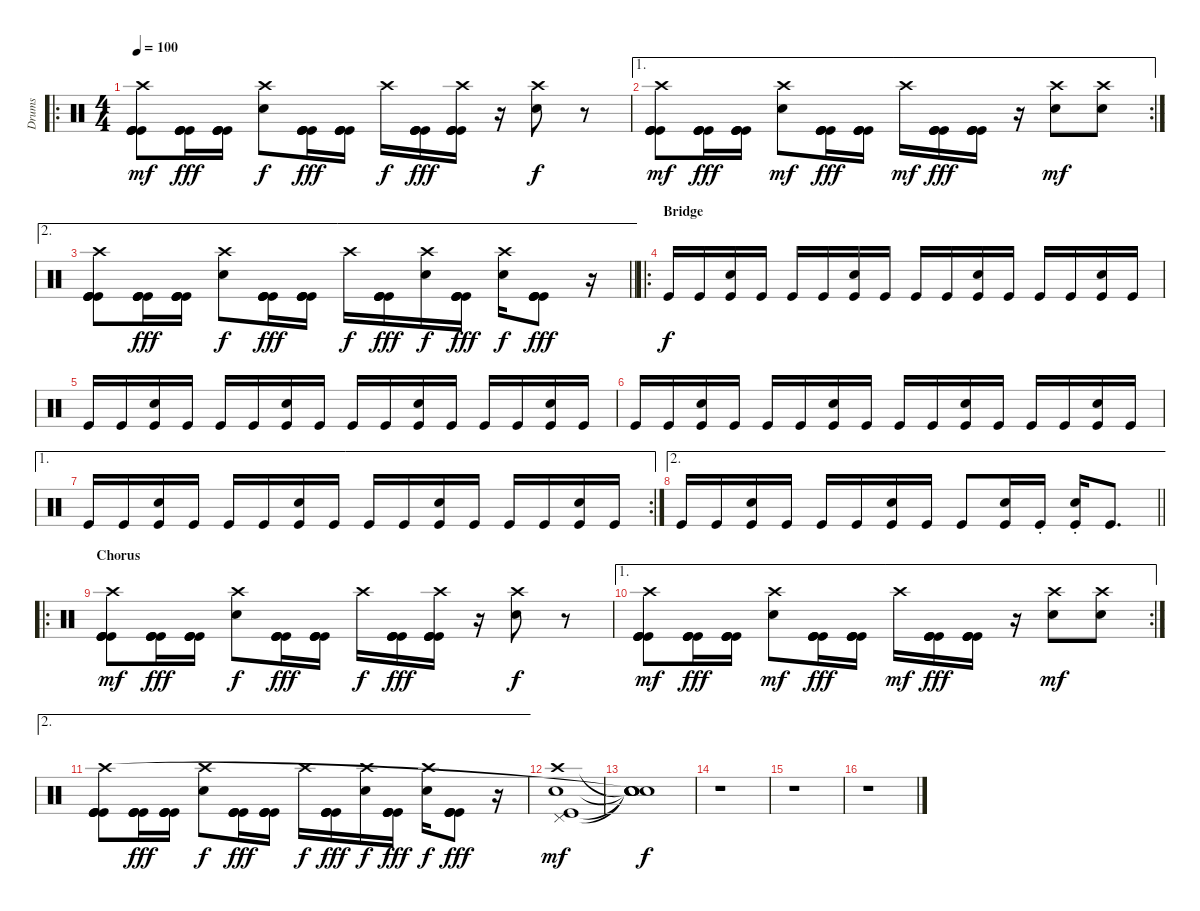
\track ("Drums" "Drums") {instrument percussion}
\staff {score}
\articulation defaults
\ro
\ts (4 4)
\tempo 100
\clef neutral
\ks c
("Kick (hit)" "Kick (hit)" "Kick (hit)" "Kick (hit)" "Crash high (hit)").8{dy mf} ("Kick (hit)" "Kick (hit)" "Kick (hit)" "Kick (hit)").16{dy fff} ("Kick (hit)" "Kick (hit)" "Kick (hit)" "Kick (hit)").16 ("Electric Snare (hit)" "Crash high (hit)").8{dy f} ("Kick (hit)" "Kick (hit)" "Kick (hit)" "Kick (hit)").16{dy fff} ("Kick (hit)" "Kick (hit)" "Kick (hit)" "Kick (hit)").16 "Crash high (hit)".16{dy f} ("Kick (hit)" "Kick (hit)" "Kick (hit)" "Kick (hit)").16{dy fff} ("Kick (hit)" "Kick (hit)" "Kick (hit)" "Kick (hit)" "Crash high (hit)").16 r.16 ("Electric Snare (hit)" "Crash high (hit)").8{dy f} r.8 |
\ae 1
\rc 2
("Kick (hit)" "Kick (hit)" "Kick (hit)" "Kick (hit)" "Crash high (hit)").8{dy mf} ("Kick (hit)" "Kick (hit)" "Kick (hit)" "Kick (hit)").16{dy fff} ("Kick (hit)" "Kick (hit)" "Kick (hit)" "Kick (hit)").16 ("Electric Snare (hit)" "Crash high (hit)").8{dy mf} ("Kick (hit)" "Kick (hit)" "Kick (hit)" "Kick (hit)").16{dy fff} ("Kick (hit)" "Kick (hit)" "Kick (hit)" "Kick (hit)").16 "Crash high (hit)".16{dy mf} ("Kick (hit)" "Kick (hit)" "Kick (hit)" "Kick (hit)").16{dy fff} ("Kick (hit)" "Kick (hit)" "Kick (hit)" "Kick (hit)").16 r.16 ("Electric Snare (hit)" "Crash high (hit)").8{dy mf} ("Electric Snare (hit)" "Crash high (hit)").8 |
\ae 2
\barLineRight lightlight
("Kick (hit)" "Kick (hit)" "Kick (hit)" "Kick (hit)" "Crash high (hit)").8 ("Kick (hit)" "Kick (hit)" "Kick (hit)" "Kick (hit)").16{dy fff} ("Kick (hit)" "Kick (hit)" "Kick (hit)" "Kick (hit)").16 ("Electric Snare (hit)" "Crash high (hit)").8{dy f} ("Kick (hit)" "Kick (hit)" "Kick (hit)" "Kick (hit)").16{dy fff} ("Kick (hit)" "Kick (hit)" "Kick (hit)" "Kick (hit)").16 "Crash high (hit)".16{dy f} ("Kick (hit)" "Kick (hit)" "Kick (hit)" "Kick (hit)").16{dy fff} ("Electric Snare (hit)" "Crash high (hit)").16{dy f} ("Kick (hit)" "Kick (hit)" "Kick (hit)" "Kick (hit)").16{dy fff} ("Electric Snare (hit)" "Crash high (hit)").16{dy f} ("Kick (hit)" "Kick (hit)" "Kick (hit)" "Kick (hit)").8{dy fff} r.16 |
\ro
\section ("" "Bridge")
"Kick (hit)".16{dy f} "Kick (hit)".16 ("Kick (hit)" "Electric Snare (hit)").16 "Kick (hit)".16 "Kick (hit)".16 "Kick (hit)".16 ("Kick (hit)" "Electric Snare (hit)").16 "Kick (hit)".16 "Kick (hit)".16 "Kick (hit)".16 ("Kick (hit)" "Electric Snare (hit)").16 "Kick (hit)".16 "Kick (hit)".16 "Kick (hit)".16 ("Kick (hit)" "Electric Snare (hit)").16 "Kick (hit)".16 |
"Kick (hit)".16 "Kick (hit)".16 ("Kick (hit)" "Electric Snare (hit)").16 "Kick (hit)".16 "Kick (hit)".16 "Kick (hit)".16 ("Kick (hit)" "Electric Snare (hit)").16 "Kick (hit)".16 "Kick (hit)".16 "Kick (hit)".16 ("Kick (hit)" "Electric Snare (hit)").16 "Kick (hit)".16 "Kick (hit)".16 "Kick (hit)".16 ("Kick (hit)" "Electric Snare (hit)").16 "Kick (hit)".16 |
"Kick (hit)".16 "Kick (hit)".16 ("Kick (hit)" "Electric Snare (hit)").16 "Kick (hit)".16 "Kick (hit)".16 "Kick (hit)".16 ("Kick (hit)" "Electric Snare (hit)").16 "Kick (hit)".16 "Kick (hit)".16 "Kick (hit)".16 ("Kick (hit)" "Electric Snare (hit)").16 "Kick (hit)".16 "Kick (hit)".16 "Kick (hit)".16 ("Kick (hit)" "Electric Snare (hit)").16 "Kick (hit)".16 |
\ae 1
\rc 2 "Kick (hit)".16 "Kick (hit)".16
("Kick (hit)" "Electric Snare (hit)").16 "Kick (hit)".16 "Kick (hit)".16 "Kick (hit)".16 ("Kick (hit)" "Electric Snare (hit)").16 "Kick (hit)".16 "Kick (hit)".16 "Kick (hit)".16 ("Kick (hit)" "Electric Snare (hit)").16 "Kick (hit)".16 "Kick (hit)".16 "Kick (hit)".16 ("Kick (hit)" "Electric Snare (hit)").16 "Kick (hit)".16 |
\ae 2
\barLineRight lightlight "Kick (hit)".16 "Kick (hit)".16
("Kick (hit)" "Electric Snare (hit)").16 "Kick (hit)".16 "Kick (hit)".16 "Kick (hit)".16 ("Kick (hit)" "Electric Snare (hit)").16 "Kick (hit)".16 "Kick (hit)".8 ("Kick (hit)" "Electric Snare (hit)").16 "Kick (hit)"{st}.16 ("Kick (hit)"{st} "Electric Snare (hit)").16 "Kick (hit)".8{d} |
\ro
\section ("" "Chorus")
("Kick (hit)" "Kick (hit)" "Kick (hit)" "Kick (hit)" "Crash high (hit)").8{dy mf} ("Kick (hit)" "Kick (hit)" "Kick (hit)" "Kick (hit)").16{dy fff} ("Kick (hit)" "Kick (hit)" "Kick (hit)" "Kick (hit)").16 ("Electric Snare (hit)" "Crash high (hit)").8{dy f} ("Kick (hit)" "Kick (hit)" "Kick (hit)" "Kick (hit)").16{dy fff} ("Kick (hit)" "Kick (hit)" "Kick (hit)" "Kick (hit)").16 "Crash high (hit)".16{dy f} ("Kick (hit)" "Kick (hit)" "Kick (hit)" "Kick (hit)").16{dy fff} ("Kick (hit)" "Kick (hit)" "Kick (hit)" "Kick (hit)" "Crash high (hit)").16 r.16 ("Electric Snare (hit)" "Crash high (hit)").8{dy f} r.8 |
\ae 1
\rc 2
("Kick (hit)" "Kick (hit)" "Kick (hit)" "Kick (hit)" "Crash high (hit)").8{dy mf} ("Kick (hit)" "Kick (hit)" "Kick (hit)" "Kick (hit)").16{dy fff} ("Kick (hit)" "Kick (hit)" "Kick (hit)" "Kick (hit)").16 ("Electric Snare (hit)" "Crash high (hit)").8{dy mf} ("Kick (hit)" "Kick (hit)" "Kick (hit)" "Kick (hit)").16{dy fff} ("Kick (hit)" "Kick (hit)" "Kick (hit)" "Kick (hit)").16 "Crash high (hit)".16{dy mf} ("Kick (hit)" "Kick (hit)" "Kick (hit)" "Kick (hit)").16{dy fff} ("Kick (hit)" "Kick (hit)" "Kick (hit)" "Kick (hit)").16 r.16 ("Electric Snare (hit)" "Crash high (hit)").8{dy mf} ("Electric Snare (hit)" "Crash high (hit)").8 |
\ae 2
("Kick (hit)" "Kick (hit)" "Kick (hit)" "Kick (hit)" "Crash high (hit)").8 ("Kick (hit)" "Kick (hit)" "Kick (hit)" "Kick (hit)").16{dy fff} ("Kick (hit)" "Kick (hit)" "Kick (hit)" "Kick (hit)").16 ("Electric Snare (hit)" "Crash high (hit)").8{dy f} ("Kick (hit)" "Kick (hit)" "Kick (hit)" "Kick (hit)").16{dy fff} ("Kick (hit)" "Kick (hit)" "Kick (hit)" "Kick (hit)").16 "Crash high (hit)".16{dy f} ("Kick (hit)" "Kick (hit)" "Kick (hit)" "Kick (hit)").16{dy fff} ("Electric Snare (hit)" "Crash high (hit)").16{dy f} ("Kick (hit)" "Kick (hit)" "Kick (hit)" "Kick (hit)").16{dy fff} ("Electric Snare (hit)" "Crash high (hit)").16{dy f} ("Kick (hit)" "Kick (hit)" "Kick (hit)" "Kick (hit)").8{dy fff} r.16 |
("Kick (hit)" "Electric Snare (hit)" "Pedal Hi-Hat (hit)" "Crash high (hit)").1{dy mf} |
("Snare (hit)"{t} "Snare (hit)"{t} "Snare (hit)"{t} "Snare (hit)"{t} "Snare (hit)"{t}).1{dy f} |
r.1 |
r.1 |
r.1
